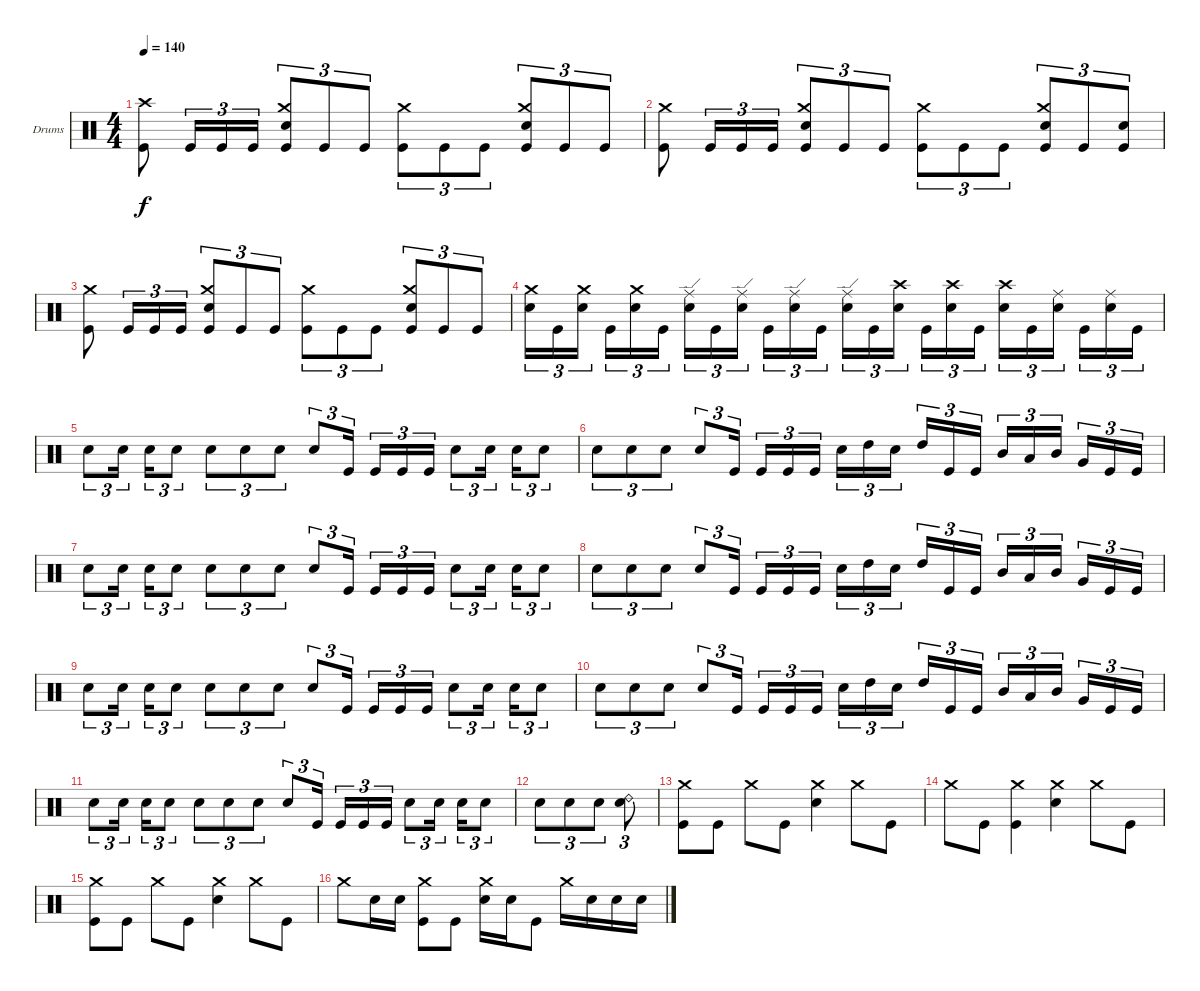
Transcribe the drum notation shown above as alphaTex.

\bracketExtendMode groupsimilarinstruments
\firstSystemTrackNameOrientation horizontal
\otherSystemsTrackNameOrientation horizontal
\track ("Drumkit" "Drums") {instrument percussion}
\staff {score}
\articulation defaults
\ts (4 4)
\tempo 140
\clef neutral
\ks c
("Kick (hit)" "Crash high (hit)").8{dy f} "Kick (hit)".16{tu (3 2)} "Kick (hit)".16{tu (3 2)} "Kick (hit)".16{tu (3 2)} ("Kick (hit)" "Crash medium (hit)" "Snare (hit) 2").8{tu (3 2)} "Kick (hit)".8{tu (3 2)} "Kick (hit)".8{tu (3 2)} ("Kick (hit)" "Crash medium (hit)").8{tu (3 2)} "Kick (hit)".8{tu (3 2)} "Kick (hit)".8{tu (3 2)} ("Kick (hit)" "Crash medium (hit)" "Snare (hit) 2").8{tu (3 2)} "Kick (hit)".8{tu (3 2)} "Kick (hit)".8{tu (3 2)} |
("Kick (hit)" "Crash medium (hit)").8 "Kick (hit)".16{tu (3 2)} "Kick (hit)".16{tu (3 2)} "Kick (hit)".16{tu (3 2)} ("Kick (hit)" "Crash medium (hit)" "Snare (hit) 2").8{tu (3 2)} "Kick (hit)".8{tu (3 2)} "Kick (hit)".8{tu (3 2)} ("Kick (hit)" "Crash medium (hit)").8{tu (3 2)} "Kick (hit)".8{tu (3 2)} "Kick (hit)".8{tu (3 2)} ("Kick (hit)" "Crash medium (hit)" "Snare (hit) 2").8{tu (3 2)} "Kick (hit)".8{tu (3 2)} ("Kick (hit)" "Snare (hit) 2").8{tu (3 2)} |
("Kick (hit)" "Crash medium (hit)").8 "Kick (hit)".16{tu (3 2)} "Kick (hit)".16{tu (3 2)} "Kick (hit)".16{tu (3 2)} ("Kick (hit)" "Crash medium (hit)" "Snare (hit) 2").8{tu (3 2)} "Kick (hit)".8{tu (3 2)} "Kick (hit)".8{tu (3 2)} ("Kick (hit)" "Crash medium (hit)").8{tu (3 2)} "Kick (hit)".8{tu (3 2)} "Kick (hit)".8{tu (3 2)} ("Kick (hit)" "Crash medium (hit)" "Snare (hit) 2").8{tu (3 2)} "Kick (hit)".8{tu (3 2)} "Kick (hit)".8{tu (3 2)} |
("Snare (hit) 2" "Crash medium (hit)").16{tu (3 2)} "Kick (hit)".16{tu (3 2)} ("Snare (hit) 2" "Crash medium (hit)").16{tu (3 2)} "Kick (hit)".16{tu (3 2)} ("Snare (hit) 2" "Crash medium (hit)").16{tu (3 2)} "Kick (hit)".16{tu (3 2)} ("Snare (hit) 2" "Ride (edge)").16{tu (3 2)} "Kick (hit)".16{tu (3 2)} ("Snare (hit) 2" "Ride (edge)").16{tu (3 2)} "Kick (hit)".16{tu (3 2)} ("Snare (hit) 2" "Ride (edge)").16{tu (3 2)} "Kick (hit)".16{tu (3 2)} ("Snare (hit) 2" "Ride (edge)").16{tu (3 2)} "Kick (hit)".16{tu (3 2)} ("Snare (hit) 2" "Crash high (hit)").16{tu (3 2)} "Kick (hit)".16{tu (3 2)} ("Snare (hit) 2" "Crash high (hit)").16{tu (3 2)} "Kick (hit)".16{tu (3 2)} ("Snare (hit) 2" "Crash high (hit)").16{tu (3 2)} "Kick (hit)".16{tu (3 2)} ("Snare (hit) 2" "Ride (middle)").16{tu (3 2)} "Kick (hit)".16{tu (3 2)} ("Snare (hit) 2" "Ride (middle)").16{tu (3 2)} "Kick (hit)".16{tu (3 2)} |
"Snare (hit) 2".8{tu (3 2)} "Snare (hit) 2".16{tu (3 2)} "Snare (hit) 2".16{tu (3 2)} "Snare (hit) 2".8{tu (3 2)} "Snare (hit) 2".8{tu (3 2)} "Snare (hit) 2".8{tu (3 2)} "Snare (hit) 2".8{tu (3 2)} "Snare (hit) 2".8{tu (3 2)} "Kick (hit)".16{tu (3 2)} "Kick (hit)".16{tu (3 2)} "Kick (hit)".16{tu (3 2)} "Kick (hit)".16{tu (3 2)} "Snare (hit) 2".8{tu (3 2)} "Snare (hit) 2".16{tu (3 2)} "Snare (hit) 2".16{tu (3 2)} "Snare (hit) 2".8{tu (3 2)} |
"Snare (hit) 2".8{tu (3 2)} "Snare (hit) 2".8{tu (3 2)} "Snare (hit) 2".8{tu (3 2)} "Snare (hit) 2".8{tu (3 2)} "Kick (hit)".16{tu (3 2)} "Kick (hit)".16{tu (3 2)} "Kick (hit)".16{tu (3 2)} "Kick (hit)".16{tu (3 2)} "Snare (hit) 2".16{tu (3 2)} "High Tom (hit)".16{tu (3 2)} "Snare (hit) 2".16{tu (3 2)} "High Tom (hit)".16{tu (3 2)} "Kick (hit)".16{tu (3 2)} "Kick (hit)".16{tu (3 2)} "Mid Tom (hit)".16{tu (3 2)} "Low Tom (hit)".16{tu (3 2)} "Mid Tom (hit)".16{tu (3 2)} "Very Low Tom (hit)".16{tu (3 2)} "Kick (hit)".16{tu (3 2)} "Kick (hit)".16{tu (3 2)} |
"Snare (hit) 2".8{tu (3 2)} "Snare (hit) 2".16{tu (3 2)} "Snare (hit) 2".16{tu (3 2)} "Snare (hit) 2".8{tu (3 2)} "Snare (hit) 2".8{tu (3 2)} "Snare (hit) 2".8{tu (3 2)} "Snare (hit) 2".8{tu (3 2)} "Snare (hit) 2".8{tu (3 2)} "Kick (hit)".16{tu (3 2)} "Kick (hit)".16{tu (3 2)} "Kick (hit)".16{tu (3 2)} "Kick (hit)".16{tu (3 2)} "Snare (hit) 2".8{tu (3 2)} "Snare (hit) 2".16{tu (3 2)} "Snare (hit) 2".16{tu (3 2)} "Snare (hit) 2".8{tu (3 2)} |
"Snare (hit) 2".8{tu (3 2)} "Snare (hit) 2".8{tu (3 2)} "Snare (hit) 2".8{tu (3 2)} "Snare (hit) 2".8{tu (3 2)} "Kick (hit)".16{tu (3 2)} "Kick (hit)".16{tu (3 2)} "Kick (hit)".16{tu (3 2)} "Kick (hit)".16{tu (3 2)} "Snare (hit) 2".16{tu (3 2)} "High Tom (hit)".16{tu (3 2)} "Snare (hit) 2".16{tu (3 2)} "High Tom (hit)".16{tu (3 2)} "Kick (hit)".16{tu (3 2)} "Kick (hit)".16{tu (3 2)} "Mid Tom (hit)".16{tu (3 2)} "Low Tom (hit)".16{tu (3 2)} "Mid Tom (hit)".16{tu (3 2)} "Very Low Tom (hit)".16{tu (3 2)} "Kick (hit)".16{tu (3 2)} "Kick (hit)".16{tu (3 2)} |
"Snare (hit) 2".8{tu (3 2)} "Snare (hit) 2".16{tu (3 2)} "Snare (hit) 2".16{tu (3 2)} "Snare (hit) 2".8{tu (3 2)} "Snare (hit) 2".8{tu (3 2)} "Snare (hit) 2".8{tu (3 2)} "Snare (hit) 2".8{tu (3 2)} "Snare (hit) 2".8{tu (3 2)} "Kick (hit)".16{tu (3 2)} "Kick (hit)".16{tu (3 2)} "Kick (hit)".16{tu (3 2)} "Kick (hit)".16{tu (3 2)} "Snare (hit) 2".8{tu (3 2)} "Snare (hit) 2".16{tu (3 2)} "Snare (hit) 2".16{tu (3 2)} "Snare (hit) 2".8{tu (3 2)} |
"Snare (hit) 2".8{tu (3 2)} "Snare (hit) 2".8{tu (3 2)} "Snare (hit) 2".8{tu (3 2)} "Snare (hit) 2".8{tu (3 2)} "Kick (hit)".16{tu (3 2)} "Kick (hit)".16{tu (3 2)} "Kick (hit)".16{tu (3 2)} "Kick (hit)".16{tu (3 2)} "Snare (hit) 2".16{tu (3 2)} "High Tom (hit)".16{tu (3 2)} "Snare (hit) 2".16{tu (3 2)} "High Tom (hit)".16{tu (3 2)} "Kick (hit)".16{tu (3 2)} "Kick (hit)".16{tu (3 2)} "Mid Tom (hit)".16{tu (3 2)} "Low Tom (hit)".16{tu (3 2)} "Mid Tom (hit)".16{tu (3 2)} "Very Low Tom (hit)".16{tu (3 2)} "Kick (hit)".16{tu (3 2)} "Kick (hit)".16{tu (3 2)} |
"Snare (hit) 2".8{tu (3 2)} "Snare (hit) 2".16{tu (3 2)} "Snare (hit) 2".16{tu (3 2)} "Snare (hit) 2".8{tu (3 2)} "Snare (hit) 2".8{tu (3 2)} "Snare (hit) 2".8{tu (3 2)} "Snare (hit) 2".8{tu (3 2)} "Snare (hit) 2".8{tu (3 2)} "Kick (hit)".16{tu (3 2)} "Kick (hit)".16{tu (3 2)} "Kick (hit)".16{tu (3 2)} "Kick (hit)".16{tu (3 2)} "Snare (hit) 2".8{tu (3 2)} "Snare (hit) 2".16{tu (3 2)} "Snare (hit) 2".16{tu (3 2)} "Snare (hit) 2".8{tu (3 2)} |
"Snare (hit) 2".8{tu (3 2)} "Snare (hit) 2".8{tu (3 2)} "Snare (hit) 2".8{tu (3 2)} ("Snare (hit) 2" "Ride (bell) 2").8{tu (3 2)} |
("Crash medium (hit)" "Kick (hit)").8 "Kick (hit)".8 "Crash medium (hit)".8 "Kick (hit)".8 ("Snare (hit) 2" "Crash medium (hit)").4 "Crash medium (hit)".8 "Kick (hit)".8 |
"Crash medium (hit)".8 "Kick (hit)".8 ("Kick (hit)" "Crash medium (hit)").4 ("Snare (hit) 2" "Crash medium (hit)").4 "Crash medium (hit)".8 "Kick (hit)".8 |
("Crash medium (hit)" "Kick (hit)").8 "Kick (hit)".8 "Crash medium (hit)".8 "Kick (hit)".8 ("Snare (hit) 2" "Crash medium (hit)").4 "Crash medium (hit)".8 "Kick (hit)".8 |
"Crash medium (hit)".8 "Snare (hit) 2".16 "Snare (hit) 2".16 ("Kick (hit)" "Crash medium (hit)").8 "Kick (hit)".8 ("Snare (hit) 2" "Crash medium (hit)").16 "Snare (hit) 2".16 "Kick (hit)".8 "Crash medium (hit)".16 "Snare (hit) 2".16 "Snare (hit) 2".16 "Snare (hit) 2".16
